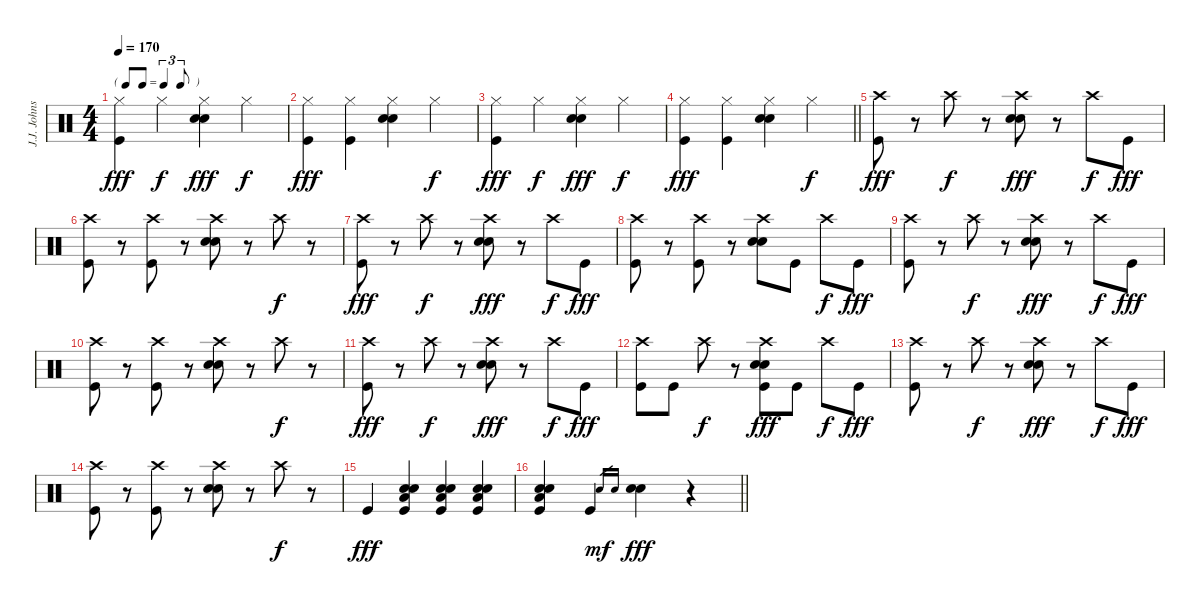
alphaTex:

\track ("J.J. Johnson" "J.J. Johns") {instrument percussion}
\staff {score}
\articulation defaults
\ts (4 4)
\tf triplet8th
\tempo 170
\clef neutral
\ks c
("Hi-Hat (closed)" "Kick (hit)").4{dy fff} "Hi-Hat (closed)".4{dy f} ("Hi-Hat (closed)" "Electric Snare (hit)" "Snare (hit) 2").4{dy fff} "Hi-Hat (closed)".4{dy f} |
("Hi-Hat (closed)" "Kick (hit)").4{dy fff} ("Hi-Hat (closed)" "Kick (hit)").4 ("Hi-Hat (closed)" "Snare (hit) 2" "Electric Snare (hit)").4 "Hi-Hat (closed)".4{dy f} |
("Hi-Hat (closed)" "Kick (hit)").4{dy fff} "Hi-Hat (closed)".4{dy f} ("Hi-Hat (closed)" "Electric Snare (hit)" "Snare (hit) 2").4{dy fff} "Hi-Hat (closed)".4{dy f} |
\barLineRight lightlight
("Hi-Hat (closed)" "Kick (hit)").4{dy fff} ("Hi-Hat (closed)" "Kick (hit)").4 ("Hi-Hat (closed)" "Snare (hit) 2" "Electric Snare (hit)").4 "Hi-Hat (closed)".4{dy f} |
("Crash high (hit)" "Kick (hit)").8{dy fff} r.8 "Crash high (hit)".8{dy f} r.8 ("Crash high (hit)" "Snare (hit) 2" "Electric Snare (hit)").8{dy fff} r.8 "Crash high (hit)".8{dy f} "Kick (hit)".8{dy fff} |
("Crash high (hit)" "Kick (hit)").8 r.8 ("Crash high (hit)" "Kick (hit)").8 r.8 ("Crash high (hit)" "Snare (hit) 2" "Electric Snare (hit)").8 r.8 "Crash high (hit)".8{dy f} r.8 |
("Crash high (hit)" "Kick (hit)").8{dy fff} r.8 "Crash high (hit)".8{dy f} r.8 ("Crash high (hit)" "Snare (hit) 2" "Electric Snare (hit)").8{dy fff} r.8 "Crash high (hit)".8{dy f} "Kick (hit)".8{dy fff} |
("Crash high (hit)" "Kick (hit)").8 r.8 ("Crash high (hit)" "Kick (hit)").8 r.8 ("Crash high (hit)" "Snare (hit) 2" "Electric Snare (hit)").8 "Kick (hit)".8 "Crash high (hit)".8{dy f} "Kick (hit)".8{dy fff} |
("Crash high (hit)" "Kick (hit)").8 r.8 "Crash high (hit)".8{dy f} r.8 ("Crash high (hit)" "Snare (hit) 2" "Electric Snare (hit)").8{dy fff} r.8 "Crash high (hit)".8{dy f} "Kick (hit)".8{dy fff} |
("Crash high (hit)" "Kick (hit)").8 r.8 ("Crash high (hit)" "Kick (hit)").8 r.8 ("Crash high (hit)" "Snare (hit) 2" "Electric Snare (hit)").8 r.8 "Crash high (hit)".8{dy f} r.8 |
("Crash high (hit)" "Kick (hit)").8{dy fff} r.8 "Crash high (hit)".8{dy f} r.8 ("Crash high (hit)" "Snare (hit) 2" "Electric Snare (hit)").8{dy fff} r.8 "Crash high (hit)".8{dy f} "Kick (hit)".8{dy fff} |
("Crash high (hit)" "Kick (hit)").8 "Kick (hit)".8 "Crash high (hit)".8{dy f} r.8 ("Crash high (hit)" "Snare (hit) 2" "Electric Snare (hit)" "Kick (hit)").8{dy fff} "Kick (hit)".8 "Crash high (hit)".8{dy f} "Kick (hit)".8{dy fff} |
("Crash high (hit)" "Kick (hit)").8 r.8 "Crash high (hit)".8{dy f} r.8 ("Crash high (hit)" "Snare (hit) 2" "Electric Snare (hit)").8{dy fff} r.8 "Crash high (hit)".8{dy f} "Kick (hit)".8{dy fff} |
("Crash high (hit)" "Kick (hit)").8 r.8 ("Crash high (hit)" "Kick (hit)").8 r.8 ("Crash high (hit)" "Snare (hit) 2" "Electric Snare (hit)").8 r.8 "Crash high (hit)".8{dy f} r.8 |
"Kick (hit)".4{dy fff} ("Snare (hit) 2" "Electric Snare (hit)" "Low Floor Tom (hit)" "Kick (hit)").4 ("Snare (hit) 2" "Electric Snare (hit)" "Low Floor Tom (hit)" "Kick (hit)").4 ("Snare (hit) 2" "Electric Snare (hit)" "Low Floor Tom (hit)" "Kick (hit)").4 |
\barLineRight lightlight
("Snare (hit) 2" "Electric Snare (hit)" "Low Floor Tom (hit)" "Kick (hit)").4 "Kick (hit)".4 "Snare (hit) 2".16{gr dy mf} "Electric Snare (hit)".16{gr} ("Snare (hit) 2" "Electric Snare (hit)").4{dy fff} r.4
